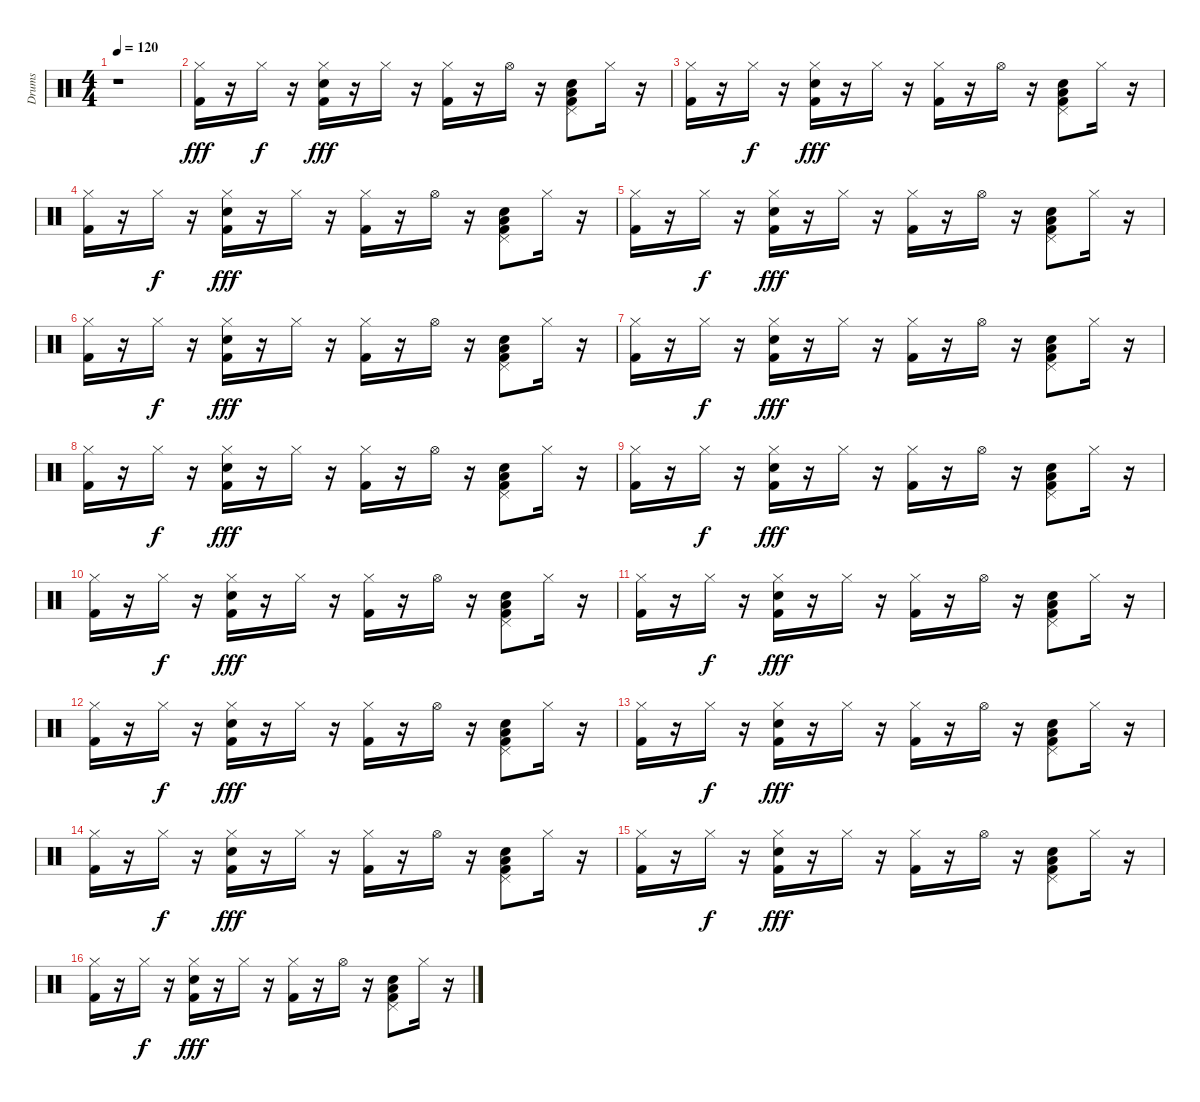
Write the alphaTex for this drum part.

\track ("Drums" "Drums") {instrument percussion}
\staff {score}
\articulation defaults
\ts (4 4)
\tempo 120
\clef neutral
\ks c
r.1{dy fff} |
("Kick (hit) 2" "Hi-Hat (closed)").16 r.16 "Hi-Hat (closed)".16{dy f} r.16 ("Kick (hit) 2" "Snare (hit) 2" "Hi-Hat (closed)").16{dy fff} r.16 "Hi-Hat (closed)".16 r.16 ("Hi-Hat (closed)" "Kick (hit) 2").16 r.16 "Hi-Hat (open)".16 r.16 ("Kick (hit) 2" "Pedal Hi-Hat (hit)" "Snare (hit) 2" "Low Floor Tom (hit)").8 "Hi-Hat (closed)".16 r.16 |
("Kick (hit) 2" "Hi-Hat (closed)").16 r.16 "Hi-Hat (closed)".16{dy f} r.16 ("Kick (hit) 2" "Snare (hit) 2" "Hi-Hat (closed)").16{dy fff} r.16 "Hi-Hat (closed)".16 r.16 ("Hi-Hat (closed)" "Kick (hit) 2").16 r.16 "Hi-Hat (open)".16 r.16 ("Kick (hit) 2" "Pedal Hi-Hat (hit)" "Snare (hit) 2" "Low Floor Tom (hit)").8 "Hi-Hat (closed)".16 r.16 |
("Kick (hit) 2" "Hi-Hat (closed)").16 r.16 "Hi-Hat (closed)".16{dy f} r.16 ("Kick (hit) 2" "Snare (hit) 2" "Hi-Hat (closed)").16{dy fff} r.16 "Hi-Hat (closed)".16 r.16 ("Hi-Hat (closed)" "Kick (hit) 2").16 r.16 "Hi-Hat (open)".16 r.16 ("Kick (hit) 2" "Pedal Hi-Hat (hit)" "Snare (hit) 2" "Low Floor Tom (hit)").8 "Hi-Hat (closed)".16 r.16 |
("Kick (hit) 2" "Hi-Hat (closed)").16 r.16 "Hi-Hat (closed)".16{dy f} r.16 ("Kick (hit) 2" "Snare (hit) 2" "Hi-Hat (closed)").16{dy fff} r.16 "Hi-Hat (closed)".16 r.16 ("Hi-Hat (closed)" "Kick (hit) 2").16 r.16 "Hi-Hat (open)".16 r.16 ("Kick (hit) 2" "Pedal Hi-Hat (hit)" "Snare (hit) 2" "Low Floor Tom (hit)").8 "Hi-Hat (closed)".16 r.16 |
("Kick (hit) 2" "Hi-Hat (closed)").16 r.16 "Hi-Hat (closed)".16{dy f} r.16 ("Kick (hit) 2" "Snare (hit) 2" "Hi-Hat (closed)").16{dy fff} r.16 "Hi-Hat (closed)".16 r.16 ("Hi-Hat (closed)" "Kick (hit) 2").16 r.16 "Hi-Hat (open)".16 r.16 ("Kick (hit) 2" "Pedal Hi-Hat (hit)" "Snare (hit) 2" "Low Floor Tom (hit)").8 "Hi-Hat (closed)".16 r.16 |
("Kick (hit) 2" "Hi-Hat (closed)").16 r.16 "Hi-Hat (closed)".16{dy f} r.16 ("Kick (hit) 2" "Snare (hit) 2" "Hi-Hat (closed)").16{dy fff} r.16 "Hi-Hat (closed)".16 r.16 ("Hi-Hat (closed)" "Kick (hit) 2").16 r.16 "Hi-Hat (open)".16 r.16 ("Kick (hit) 2" "Pedal Hi-Hat (hit)" "Snare (hit) 2" "Low Floor Tom (hit)").8 "Hi-Hat (closed)".16 r.16 |
("Kick (hit) 2" "Hi-Hat (closed)").16 r.16 "Hi-Hat (closed)".16{dy f} r.16 ("Kick (hit) 2" "Snare (hit) 2" "Hi-Hat (closed)").16{dy fff} r.16 "Hi-Hat (closed)".16 r.16 ("Hi-Hat (closed)" "Kick (hit) 2").16 r.16 "Hi-Hat (open)".16 r.16 ("Kick (hit) 2" "Pedal Hi-Hat (hit)" "Snare (hit) 2" "Low Floor Tom (hit)").8 "Hi-Hat (closed)".16 r.16 |
("Kick (hit) 2" "Hi-Hat (closed)").16 r.16 "Hi-Hat (closed)".16{dy f} r.16 ("Kick (hit) 2" "Snare (hit) 2" "Hi-Hat (closed)").16{dy fff} r.16 "Hi-Hat (closed)".16 r.16 ("Hi-Hat (closed)" "Kick (hit) 2").16 r.16 "Hi-Hat (open)".16 r.16 ("Kick (hit) 2" "Pedal Hi-Hat (hit)" "Snare (hit) 2" "Low Floor Tom (hit)").8 "Hi-Hat (closed)".16 r.16 |
("Kick (hit) 2" "Hi-Hat (closed)").16 r.16 "Hi-Hat (closed)".16{dy f} r.16 ("Kick (hit) 2" "Snare (hit) 2" "Hi-Hat (closed)").16{dy fff} r.16 "Hi-Hat (closed)".16 r.16 ("Hi-Hat (closed)" "Kick (hit) 2").16 r.16 "Hi-Hat (open)".16 r.16 ("Kick (hit) 2" "Pedal Hi-Hat (hit)" "Snare (hit) 2" "Low Floor Tom (hit)").8 "Hi-Hat (closed)".16 r.16 |
("Kick (hit) 2" "Hi-Hat (closed)").16 r.16 "Hi-Hat (closed)".16{dy f} r.16 ("Kick (hit) 2" "Snare (hit) 2" "Hi-Hat (closed)").16{dy fff} r.16 "Hi-Hat (closed)".16 r.16 ("Hi-Hat (closed)" "Kick (hit) 2").16 r.16 "Hi-Hat (open)".16 r.16 ("Kick (hit) 2" "Pedal Hi-Hat (hit)" "Snare (hit) 2" "Low Floor Tom (hit)").8 "Hi-Hat (closed)".16 r.16 |
("Kick (hit) 2" "Hi-Hat (closed)").16 r.16 "Hi-Hat (closed)".16{dy f} r.16 ("Kick (hit) 2" "Snare (hit) 2" "Hi-Hat (closed)").16{dy fff} r.16 "Hi-Hat (closed)".16 r.16 ("Hi-Hat (closed)" "Kick (hit) 2").16 r.16 "Hi-Hat (open)".16 r.16 ("Kick (hit) 2" "Pedal Hi-Hat (hit)" "Snare (hit) 2" "Low Floor Tom (hit)").8 "Hi-Hat (closed)".16 r.16 |
("Kick (hit) 2" "Hi-Hat (closed)").16 r.16 "Hi-Hat (closed)".16{dy f} r.16 ("Kick (hit) 2" "Snare (hit) 2" "Hi-Hat (closed)").16{dy fff} r.16 "Hi-Hat (closed)".16 r.16 ("Hi-Hat (closed)" "Kick (hit) 2").16 r.16 "Hi-Hat (open)".16 r.16 ("Kick (hit) 2" "Pedal Hi-Hat (hit)" "Snare (hit) 2" "Low Floor Tom (hit)").8 "Hi-Hat (closed)".16 r.16 |
("Kick (hit) 2" "Hi-Hat (closed)").16 r.16 "Hi-Hat (closed)".16{dy f} r.16 ("Kick (hit) 2" "Snare (hit) 2" "Hi-Hat (closed)").16{dy fff} r.16 "Hi-Hat (closed)".16 r.16 ("Hi-Hat (closed)" "Kick (hit) 2").16 r.16 "Hi-Hat (open)".16 r.16 ("Kick (hit) 2" "Pedal Hi-Hat (hit)" "Snare (hit) 2" "Low Floor Tom (hit)").8 "Hi-Hat (closed)".16 r.16 |
("Kick (hit) 2" "Hi-Hat (closed)").16 r.16 "Hi-Hat (closed)".16{dy f} r.16 ("Kick (hit) 2" "Snare (hit) 2" "Hi-Hat (closed)").16{dy fff} r.16 "Hi-Hat (closed)".16 r.16 ("Hi-Hat (closed)" "Kick (hit) 2").16 r.16 "Hi-Hat (open)".16 r.16 ("Kick (hit) 2" "Pedal Hi-Hat (hit)" "Snare (hit) 2" "Low Floor Tom (hit)").8 "Hi-Hat (closed)".16 r.16 |
("Kick (hit) 2" "Hi-Hat (closed)").16 r.16 "Hi-Hat (closed)".16{dy f} r.16 ("Kick (hit) 2" "Snare (hit) 2" "Hi-Hat (closed)").16{dy fff} r.16 "Hi-Hat (closed)".16 r.16 ("Hi-Hat (closed)" "Kick (hit) 2").16 r.16 "Hi-Hat (open)".16 r.16 ("Kick (hit) 2" "Pedal Hi-Hat (hit)" "Snare (hit) 2" "Low Floor Tom (hit)").8 "Hi-Hat (closed)".16 r.16
